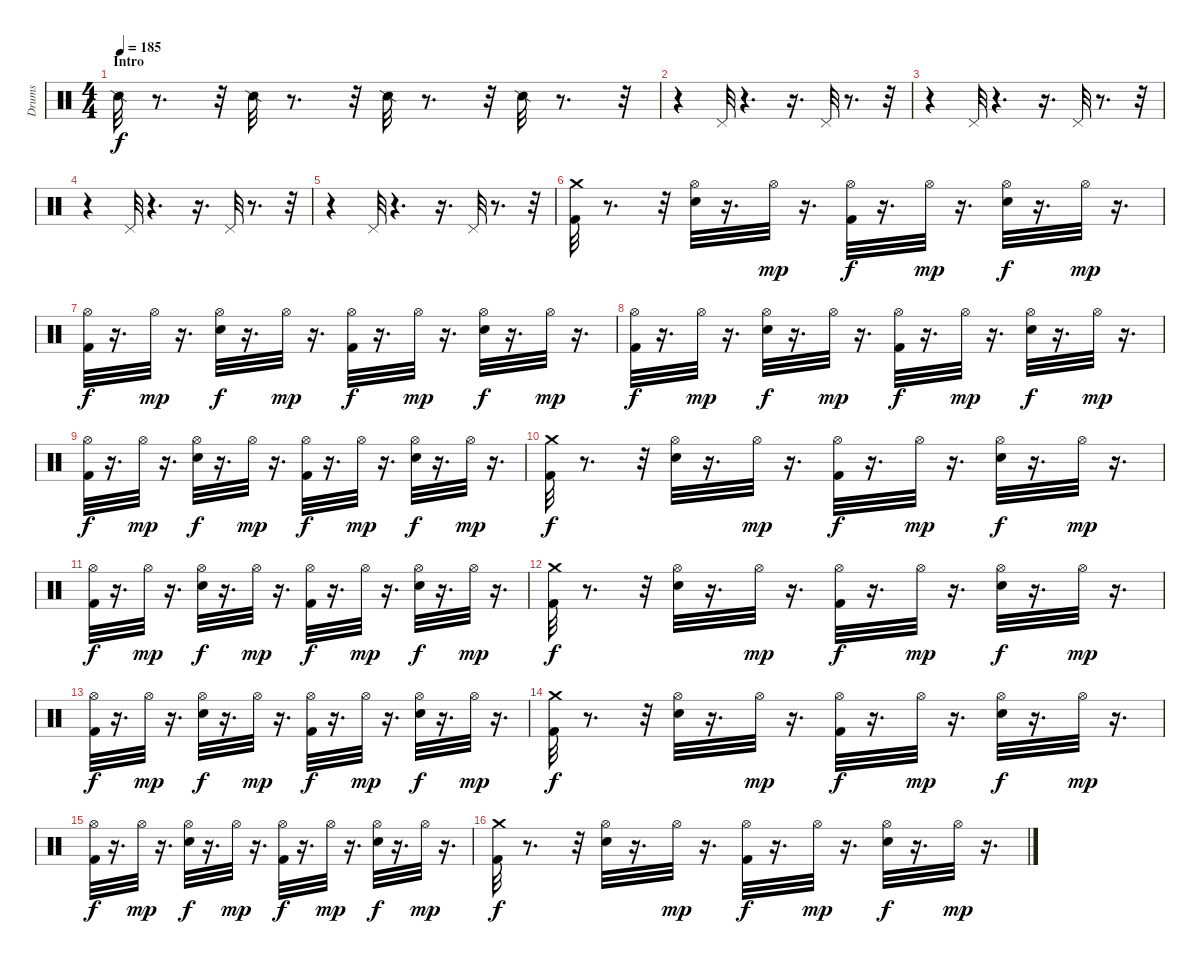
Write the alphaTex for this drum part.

\track ("Drums" "Drums") {instrument percussion}
\staff {score}
\articulation defaults
\ts (4 4)
\section ("" "Intro")
\tempo 185
\clef neutral
\ks c "Snare (side stick) 2".32{dy f}
r.8{d} r.32 "Snare (side stick) 2".32 r.8{d} r.32 "Snare (side stick) 2".32 r.8{d} r.32 "Snare (side stick) 2".32 r.8{d} r.32 |
r.4 "Pedal Hi-Hat (hit)".32 r.4{d} r.16{d} "Pedal Hi-Hat (hit)".32 r.8{d} r.32 |
r.4 "Pedal Hi-Hat (hit)".32 r.4{d} r.16{d} "Pedal Hi-Hat (hit)".32 r.8{d} r.32 |
r.4 "Pedal Hi-Hat (hit)".32 r.4{d} r.16{d} "Pedal Hi-Hat (hit)".32 r.8{d} r.32 |
r.4 "Pedal Hi-Hat (hit)".32 r.4{d} r.16{d} "Pedal Hi-Hat (hit)".32 r.8{d} r.32 |
("Crash medium (hit)" "Kick (hit) 2").32 r.8{d} r.32 ("Hi-Hat (open)" "Electric Snare (hit)").32 r.16{d} "Hi-Hat (open)".32{dy mp} r.16{d} ("Hi-Hat (open)" "Kick (hit) 2").32{dy f} r.16{d} "Hi-Hat (open)".32{dy mp} r.16{d} ("Hi-Hat (open)" "Electric Snare (hit)").32{dy f} r.16{d} "Hi-Hat (open)".32{dy mp} r.16{d} |
("Hi-Hat (open)" "Kick (hit) 2").32{dy f} r.16{d} "Hi-Hat (open)".32{dy mp} r.16{d} ("Hi-Hat (open)" "Electric Snare (hit)").32{dy f} r.16{d} "Hi-Hat (open)".32{dy mp} r.16{d} ("Hi-Hat (open)" "Kick (hit) 2").32{dy f} r.16{d} "Hi-Hat (open)".32{dy mp} r.16{d} ("Hi-Hat (open)" "Electric Snare (hit)").32{dy f} r.16{d} "Hi-Hat (open)".32{dy mp} r.16{d} |
("Hi-Hat (open)" "Kick (hit) 2").32{dy f} r.16{d} "Hi-Hat (open)".32{dy mp} r.16{d} ("Hi-Hat (open)" "Electric Snare (hit)").32{dy f} r.16{d} "Hi-Hat (open)".32{dy mp} r.16{d} ("Hi-Hat (open)" "Kick (hit) 2").32{dy f} r.16{d} "Hi-Hat (open)".32{dy mp} r.16{d} ("Hi-Hat (open)" "Electric Snare (hit)").32{dy f} r.16{d} "Hi-Hat (open)".32{dy mp} r.16{d} |
("Hi-Hat (open)" "Kick (hit) 2").32{dy f} r.16{d} "Hi-Hat (open)".32{dy mp} r.16{d} ("Hi-Hat (open)" "Electric Snare (hit)").32{dy f} r.16{d} "Hi-Hat (open)".32{dy mp} r.16{d} ("Hi-Hat (open)" "Kick (hit) 2").32{dy f} r.16{d} "Hi-Hat (open)".32{dy mp} r.16{d} ("Hi-Hat (open)" "Electric Snare (hit)").32{dy f} r.16{d} "Hi-Hat (open)".32{dy mp} r.16{d} |
("Crash medium (hit)" "Kick (hit) 2").32{dy f} r.8{d} r.32 ("Hi-Hat (open)" "Electric Snare (hit)").32 r.16{d} "Hi-Hat (open)".32{dy mp} r.16{d} ("Hi-Hat (open)" "Kick (hit) 2").32{dy f} r.16{d} "Hi-Hat (open)".32{dy mp} r.16{d} ("Hi-Hat (open)" "Electric Snare (hit)").32{dy f} r.16{d} "Hi-Hat (open)".32{dy mp} r.16{d} |
("Hi-Hat (open)" "Kick (hit) 2").32{dy f} r.16{d} "Hi-Hat (open)".32{dy mp} r.16{d} ("Hi-Hat (open)" "Electric Snare (hit)").32{dy f} r.16{d} "Hi-Hat (open)".32{dy mp} r.16{d} ("Hi-Hat (open)" "Kick (hit) 2").32{dy f} r.16{d} "Hi-Hat (open)".32{dy mp} r.16{d} ("Hi-Hat (open)" "Electric Snare (hit)").32{dy f} r.16{d} "Hi-Hat (open)".32{dy mp} r.16{d} |
("Crash medium (hit)" "Kick (hit) 2").32{dy f} r.8{d} r.32 ("Hi-Hat (open)" "Electric Snare (hit)").32 r.16{d} "Hi-Hat (open)".32{dy mp} r.16{d} ("Hi-Hat (open)" "Kick (hit) 2").32{dy f} r.16{d} "Hi-Hat (open)".32{dy mp} r.16{d} ("Hi-Hat (open)" "Electric Snare (hit)").32{dy f} r.16{d} "Hi-Hat (open)".32{dy mp} r.16{d} |
("Hi-Hat (open)" "Kick (hit) 2").32{dy f} r.16{d} "Hi-Hat (open)".32{dy mp} r.16{d} ("Hi-Hat (open)" "Electric Snare (hit)").32{dy f} r.16{d} "Hi-Hat (open)".32{dy mp} r.16{d} ("Hi-Hat (open)" "Kick (hit) 2").32{dy f} r.16{d} "Hi-Hat (open)".32{dy mp} r.16{d} ("Hi-Hat (open)" "Electric Snare (hit)").32{dy f} r.16{d} "Hi-Hat (open)".32{dy mp} r.16{d} |
("Crash medium (hit)" "Kick (hit) 2").32{dy f} r.8{d} r.32 ("Hi-Hat (open)" "Electric Snare (hit)").32 r.16{d} "Hi-Hat (open)".32{dy mp} r.16{d} ("Hi-Hat (open)" "Kick (hit) 2").32{dy f} r.16{d} "Hi-Hat (open)".32{dy mp} r.16{d} ("Hi-Hat (open)" "Electric Snare (hit)").32{dy f} r.16{d} "Hi-Hat (open)".32{dy mp} r.16{d} |
("Hi-Hat (open)" "Kick (hit) 2").32{dy f} r.16{d} "Hi-Hat (open)".32{dy mp} r.16{d} ("Hi-Hat (open)" "Electric Snare (hit)").32{dy f} r.16{d} "Hi-Hat (open)".32{dy mp} r.16{d} ("Hi-Hat (open)" "Kick (hit) 2").32{dy f} r.16{d} "Hi-Hat (open)".32{dy mp} r.16{d} ("Hi-Hat (open)" "Electric Snare (hit)").32{dy f} r.16{d} "Hi-Hat (open)".32{dy mp} r.16{d} |
("Crash medium (hit)" "Kick (hit) 2").32{dy f} r.8{d} r.32 ("Hi-Hat (open)" "Electric Snare (hit)").32 r.16{d} "Hi-Hat (open)".32{dy mp} r.16{d} ("Hi-Hat (open)" "Kick (hit) 2").32{dy f} r.16{d} "Hi-Hat (open)".32{dy mp} r.16{d} ("Hi-Hat (open)" "Electric Snare (hit)").32{dy f} r.16{d} "Hi-Hat (open)".32{dy mp} r.16{d}
